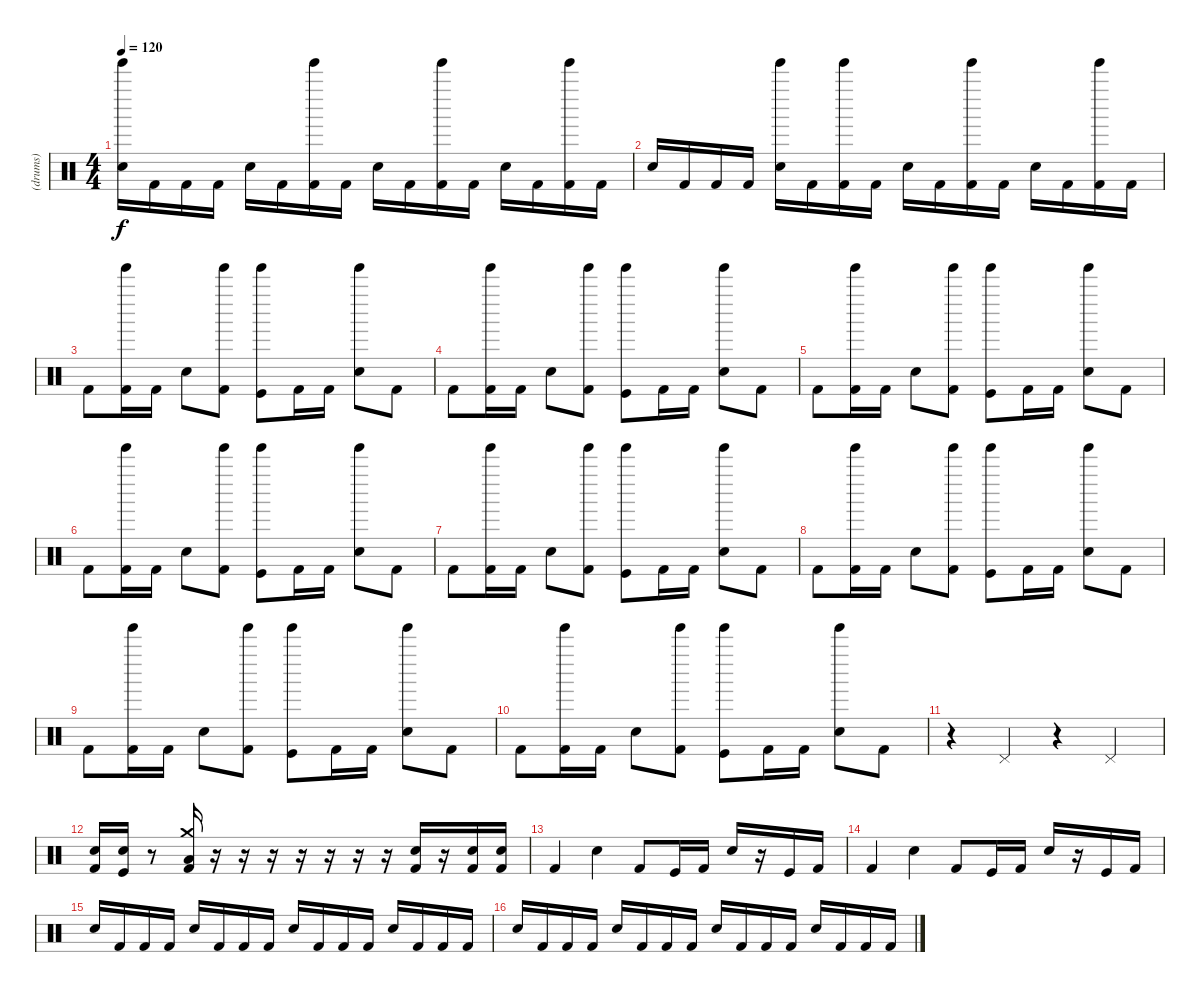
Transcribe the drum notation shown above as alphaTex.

\track ("(drums)" "(drums)") {instrument percussion}
\staff {score}
\articulation defaults
\ts (4 4)
\tempo 120
\clef neutral
\ks c
("Tinkle Bell (hit)" "Electric Snare (hit)").16{dy f} "Kick (hit) 2".16 "Kick (hit) 2".16 "Kick (hit) 2".16 "Electric Snare (hit)".16 "Kick (hit) 2".16 ("Tinkle Bell (hit)" "Kick (hit) 2").16 "Kick (hit) 2".16 "Electric Snare (hit)".16 "Kick (hit) 2".16 ("Tinkle Bell (hit)" "Kick (hit) 2").16 "Kick (hit) 2".16 "Electric Snare (hit)".16 "Kick (hit) 2".16 ("Tinkle Bell (hit)" "Kick (hit) 2").16 "Kick (hit) 2".16 |
"Electric Snare (hit)".16 "Kick (hit) 2".16 "Kick (hit) 2".16 "Kick (hit) 2".16 ("Tinkle Bell (hit)" "Electric Snare (hit)").16 "Kick (hit) 2".16 ("Tinkle Bell (hit)" "Kick (hit) 2").16 "Kick (hit) 2".16 "Electric Snare (hit)".16 "Kick (hit) 2".16 ("Tinkle Bell (hit)" "Kick (hit) 2").16 "Kick (hit) 2".16 "Electric Snare (hit)".16 "Kick (hit) 2".16 ("Tinkle Bell (hit)" "Kick (hit) 2").16 "Kick (hit) 2".16 |
"Kick (hit) 2".8 ("Tinkle Bell (hit)" "Kick (hit) 2").16 "Kick (hit) 2".16 "Electric Snare (hit)".8 ("Tinkle Bell (hit)" "Kick (hit) 2").8 ("Tinkle Bell (hit)" "Kick (hit)").8 "Kick (hit) 2".16 "Kick (hit) 2".16 ("Tinkle Bell (hit)" "Electric Snare (hit)").8 "Kick (hit) 2".8 |
"Kick (hit) 2".8 ("Tinkle Bell (hit)" "Kick (hit) 2").16 "Kick (hit) 2".16 "Electric Snare (hit)".8 ("Tinkle Bell (hit)" "Kick (hit) 2").8 ("Tinkle Bell (hit)" "Kick (hit)").8 "Kick (hit) 2".16 "Kick (hit) 2".16 ("Tinkle Bell (hit)" "Electric Snare (hit)").8 "Kick (hit) 2".8 |
"Kick (hit) 2".8 ("Tinkle Bell (hit)" "Kick (hit) 2").16 "Kick (hit) 2".16 "Electric Snare (hit)".8 ("Tinkle Bell (hit)" "Kick (hit) 2").8 ("Tinkle Bell (hit)" "Kick (hit)").8 "Kick (hit) 2".16 "Kick (hit) 2".16 ("Tinkle Bell (hit)" "Electric Snare (hit)").8 "Kick (hit) 2".8 |
"Kick (hit) 2".8 ("Tinkle Bell (hit)" "Kick (hit) 2").16 "Kick (hit) 2".16 "Electric Snare (hit)".8 ("Tinkle Bell (hit)" "Kick (hit) 2").8 ("Tinkle Bell (hit)" "Kick (hit)").8 "Kick (hit) 2".16 "Kick (hit) 2".16 ("Tinkle Bell (hit)" "Electric Snare (hit)").8 "Kick (hit) 2".8 |
"Kick (hit) 2".8 ("Tinkle Bell (hit)" "Kick (hit) 2").16 "Kick (hit) 2".16 "Electric Snare (hit)".8 ("Tinkle Bell (hit)" "Kick (hit) 2").8 ("Tinkle Bell (hit)" "Kick (hit)").8 "Kick (hit) 2".16 "Kick (hit) 2".16 ("Tinkle Bell (hit)" "Electric Snare (hit)").8 "Kick (hit) 2".8 |
"Kick (hit) 2".8 ("Tinkle Bell (hit)" "Kick (hit) 2").16 "Kick (hit) 2".16 "Electric Snare (hit)".8 ("Tinkle Bell (hit)" "Kick (hit) 2").8 ("Tinkle Bell (hit)" "Kick (hit)").8 "Kick (hit) 2".16 "Kick (hit) 2".16 ("Tinkle Bell (hit)" "Electric Snare (hit)").8 "Kick (hit) 2".8 |
"Kick (hit) 2".8 ("Tinkle Bell (hit)" "Kick (hit) 2").16 "Kick (hit) 2".16 "Electric Snare (hit)".8 ("Tinkle Bell (hit)" "Kick (hit) 2").8 ("Tinkle Bell (hit)" "Kick (hit)").8 "Kick (hit) 2".16 "Kick (hit) 2".16 ("Tinkle Bell (hit)" "Electric Snare (hit)").8 "Kick (hit) 2".8 |
"Kick (hit) 2".8 ("Tinkle Bell (hit)" "Kick (hit) 2").16 "Kick (hit) 2".16 "Electric Snare (hit)".8 ("Tinkle Bell (hit)" "Kick (hit) 2").8 ("Tinkle Bell (hit)" "Kick (hit)").8 "Kick (hit) 2".16 "Kick (hit) 2".16 ("Tinkle Bell (hit)" "Electric Snare (hit)").8 "Kick (hit) 2".8 |
r.4 "Pedal Hi-Hat (hit)".4 r.4 "Pedal Hi-Hat (hit)".4 |
("Kick (hit) 2" "Electric Snare (hit)").16 ("Kick (hit)" "Electric Snare (hit)").16 r.8 ("Crash medium (hit)" "Kick (hit) 2" "Low Tom (hit)").16 r.16 r.16 r.16 r.16 r.16 r.16 r.16 ("Kick (hit) 2" "Electric Snare (hit)").16 r.16 ("Kick (hit) 2" "Electric Snare (hit)").16 ("Kick (hit) 2" "Electric Snare (hit)").16 |
"Kick (hit) 2".4 "Electric Snare (hit)".4 "Kick (hit) 2".8 "Kick (hit)".16 "Kick (hit) 2".16 "Electric Snare (hit)".16 r.16 "Kick (hit)".16 "Kick (hit) 2".16 |
"Kick (hit) 2".4 "Electric Snare (hit)".4 "Kick (hit) 2".8 "Kick (hit)".16 "Kick (hit) 2".16 "Electric Snare (hit)".16 r.16 "Kick (hit)".16 "Kick (hit) 2".16 |
"Electric Snare (hit)".16 "Kick (hit) 2".16 "Kick (hit) 2".16 "Kick (hit) 2".16 "Electric Snare (hit)".16 "Kick (hit) 2".16 "Kick (hit) 2".16 "Kick (hit) 2".16 "Electric Snare (hit)".16 "Kick (hit) 2".16 "Kick (hit) 2".16 "Kick (hit) 2".16 "Electric Snare (hit)".16 "Kick (hit) 2".16 "Kick (hit) 2".16 "Kick (hit) 2".16 |
"Electric Snare (hit)".16 "Kick (hit) 2".16 "Kick (hit) 2".16 "Kick (hit) 2".16 "Electric Snare (hit)".16 "Kick (hit) 2".16 "Kick (hit) 2".16 "Kick (hit) 2".16 "Electric Snare (hit)".16 "Kick (hit) 2".16 "Kick (hit) 2".16 "Kick (hit) 2".16 "Electric Snare (hit)".16 "Kick (hit) 2".16 "Kick (hit) 2".16 "Kick (hit) 2".16
